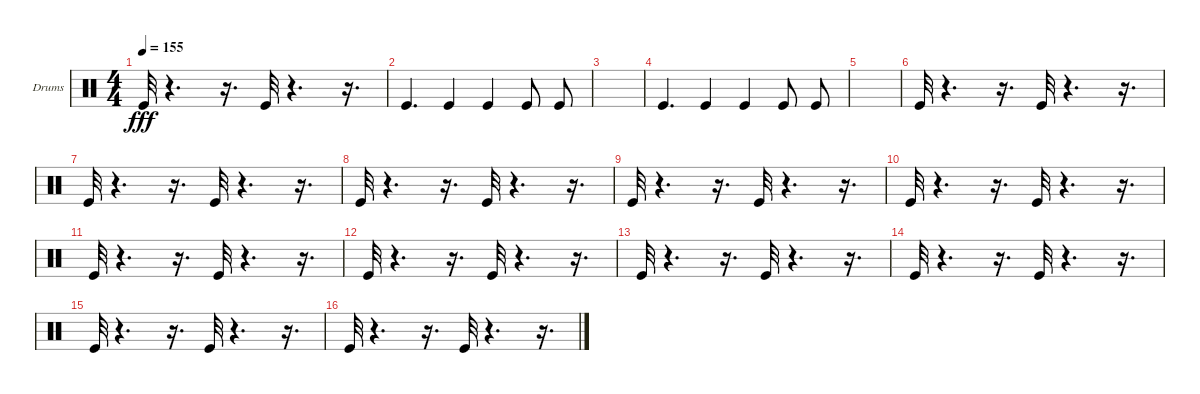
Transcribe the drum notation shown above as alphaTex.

\bracketExtendMode groupsimilarinstruments
\firstSystemTrackNameOrientation horizontal
\otherSystemsTrackNameOrientation horizontal
\track ("Е. Кулаков" "Drums") {instrument percussion}
\staff {score}
\articulation defaults
\ts (4 4)
\tempo 155
\clef neutral
\ks c "Kick (hit)".32{dy fff}
r.4{d} r.16{d} "Kick (hit)".32 r.4{d} r.16{d} |
"Kick (hit)".4{d} "Kick (hit)".4 "Kick (hit)".4 "Kick (hit)".8 "Kick (hit)".8 |
|
"Kick (hit)".4{d} "Kick (hit)".4 "Kick (hit)".4 "Kick (hit)".8 "Kick (hit)".8 |
|
"Kick (hit)".32 r.4{d} r.16{d} "Kick (hit)".32 r.4{d} r.16{d} |
"Kick (hit)".32 r.4{d} r.16{d} "Kick (hit)".32 r.4{d} r.16{d} |
"Kick (hit)".32 r.4{d} r.16{d} "Kick (hit)".32 r.4{d} r.16{d} |
"Kick (hit)".32 r.4{d} r.16{d} "Kick (hit)".32 r.4{d} r.16{d} |
"Kick (hit)".32 r.4{d} r.16{d} "Kick (hit)".32 r.4{d} r.16{d} |
"Kick (hit)".32 r.4{d} r.16{d} "Kick (hit)".32 r.4{d} r.16{d} |
"Kick (hit)".32 r.4{d} r.16{d} "Kick (hit)".32 r.4{d} r.16{d} |
"Kick (hit)".32 r.4{d} r.16{d} "Kick (hit)".32 r.4{d} r.16{d} |
"Kick (hit)".32 r.4{d} r.16{d} "Kick (hit)".32 r.4{d} r.16{d} |
"Kick (hit)".32 r.4{d} r.16{d} "Kick (hit)".32 r.4{d} r.16{d} |
"Kick (hit)".32 r.4{d} r.16{d} "Kick (hit)".32 r.4{d} r.16{d}
